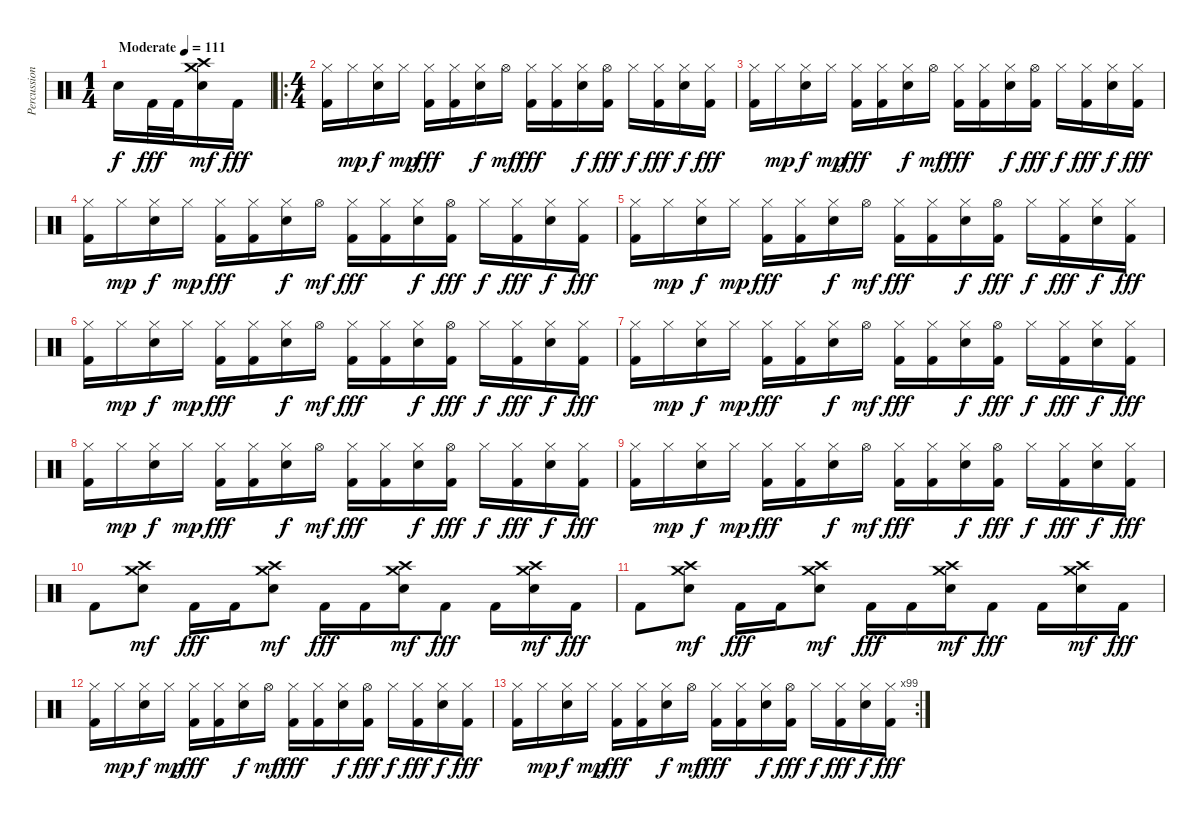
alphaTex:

\track ("Percussion" "Percussion") {instrument percussion}
\staff {score}
\articulation defaults
\ts (1 4)
\tempo (111 "Moderate")
\clef neutral
\ks c "Snare (hit) 2".16{dy f} "Kick (hit) 2".32{dy fff} "Kick (hit) 2".32
("Crash medium (hit)" "Crash high (hit)" "Snare (hit) 2").16{dy mf} "Kick (hit) 2".16{dy fff} |
\ro
\ts (4 4)
("Hi-Hat (closed)" "Kick (hit) 2").16 "Hi-Hat (closed)".16{dy mp} ("Hi-Hat (closed)" "Snare (hit) 2").16{dy f} "Hi-Hat (closed)".16{dy mp} ("Hi-Hat (closed)" "Kick (hit) 2").16{dy fff} ("Hi-Hat (closed)" "Kick (hit) 2").16 ("Hi-Hat (closed)" "Snare (hit) 2").16{dy f} "Hi-Hat (open)".16{dy mf} ("Hi-Hat (closed)" "Kick (hit) 2").16{dy fff} ("Hi-Hat (closed)" "Kick (hit) 2").16 ("Hi-Hat (closed)" "Snare (hit) 2").16{dy f} ("Hi-Hat (open)" "Kick (hit) 2").16{dy fff} "Hi-Hat (closed)".16{dy f} ("Hi-Hat (closed)" "Kick (hit) 2").16{dy fff} ("Hi-Hat (closed)" "Snare (hit) 2").16{dy f} ("Hi-Hat (closed)" "Kick (hit) 2").16{dy fff} |
("Hi-Hat (closed)" "Kick (hit) 2").16 "Hi-Hat (closed)".16{dy mp} ("Hi-Hat (closed)" "Snare (hit) 2").16{dy f} "Hi-Hat (closed)".16{dy mp} ("Hi-Hat (closed)" "Kick (hit) 2").16{dy fff} ("Hi-Hat (closed)" "Kick (hit) 2").16 ("Hi-Hat (closed)" "Snare (hit) 2").16{dy f} "Hi-Hat (open)".16{dy mf} ("Hi-Hat (closed)" "Kick (hit) 2").16{dy fff} ("Hi-Hat (closed)" "Kick (hit) 2").16 ("Hi-Hat (closed)" "Snare (hit) 2").16{dy f} ("Hi-Hat (open)" "Kick (hit) 2").16{dy fff} "Hi-Hat (closed)".16{dy f} ("Hi-Hat (closed)" "Kick (hit) 2").16{dy fff} ("Hi-Hat (closed)" "Snare (hit) 2").16{dy f} ("Hi-Hat (closed)" "Kick (hit) 2").16{dy fff} |
("Hi-Hat (closed)" "Kick (hit) 2").16 "Hi-Hat (closed)".16{dy mp} ("Hi-Hat (closed)" "Snare (hit) 2").16{dy f} "Hi-Hat (closed)".16{dy mp} ("Hi-Hat (closed)" "Kick (hit) 2").16{dy fff} ("Hi-Hat (closed)" "Kick (hit) 2").16 ("Hi-Hat (closed)" "Snare (hit) 2").16{dy f} "Hi-Hat (open)".16{dy mf} ("Hi-Hat (closed)" "Kick (hit) 2").16{dy fff} ("Hi-Hat (closed)" "Kick (hit) 2").16 ("Hi-Hat (closed)" "Snare (hit) 2").16{dy f} ("Hi-Hat (open)" "Kick (hit) 2").16{dy fff} "Hi-Hat (closed)".16{dy f} ("Hi-Hat (closed)" "Kick (hit) 2").16{dy fff} ("Hi-Hat (closed)" "Snare (hit) 2").16{dy f} ("Hi-Hat (closed)" "Kick (hit) 2").16{dy fff} |
("Hi-Hat (closed)" "Kick (hit) 2").16 "Hi-Hat (closed)".16{dy mp} ("Hi-Hat (closed)" "Snare (hit) 2").16{dy f} "Hi-Hat (closed)".16{dy mp} ("Hi-Hat (closed)" "Kick (hit) 2").16{dy fff} ("Hi-Hat (closed)" "Kick (hit) 2").16 ("Hi-Hat (closed)" "Snare (hit) 2").16{dy f} "Hi-Hat (open)".16{dy mf} ("Hi-Hat (closed)" "Kick (hit) 2").16{dy fff} ("Hi-Hat (closed)" "Kick (hit) 2").16 ("Hi-Hat (closed)" "Snare (hit) 2").16{dy f} ("Hi-Hat (open)" "Kick (hit) 2").16{dy fff} "Hi-Hat (closed)".16{dy f} ("Hi-Hat (closed)" "Kick (hit) 2").16{dy fff} ("Hi-Hat (closed)" "Snare (hit) 2").16{dy f} ("Hi-Hat (closed)" "Kick (hit) 2").16{dy fff} |
("Hi-Hat (closed)" "Kick (hit) 2").16 "Hi-Hat (closed)".16{dy mp} ("Hi-Hat (closed)" "Snare (hit) 2").16{dy f} "Hi-Hat (closed)".16{dy mp} ("Hi-Hat (closed)" "Kick (hit) 2").16{dy fff} ("Hi-Hat (closed)" "Kick (hit) 2").16 ("Hi-Hat (closed)" "Snare (hit) 2").16{dy f} "Hi-Hat (open)".16{dy mf} ("Hi-Hat (closed)" "Kick (hit) 2").16{dy fff} ("Hi-Hat (closed)" "Kick (hit) 2").16 ("Hi-Hat (closed)" "Snare (hit) 2").16{dy f} ("Hi-Hat (open)" "Kick (hit) 2").16{dy fff} "Hi-Hat (closed)".16{dy f} ("Hi-Hat (closed)" "Kick (hit) 2").16{dy fff} ("Hi-Hat (closed)" "Snare (hit) 2").16{dy f} ("Hi-Hat (closed)" "Kick (hit) 2").16{dy fff} |
("Hi-Hat (closed)" "Kick (hit) 2").16 "Hi-Hat (closed)".16{dy mp} ("Hi-Hat (closed)" "Snare (hit) 2").16{dy f} "Hi-Hat (closed)".16{dy mp} ("Hi-Hat (closed)" "Kick (hit) 2").16{dy fff} ("Hi-Hat (closed)" "Kick (hit) 2").16 ("Hi-Hat (closed)" "Snare (hit) 2").16{dy f} "Hi-Hat (open)".16{dy mf} ("Hi-Hat (closed)" "Kick (hit) 2").16{dy fff} ("Hi-Hat (closed)" "Kick (hit) 2").16 ("Hi-Hat (closed)" "Snare (hit) 2").16{dy f} ("Hi-Hat (open)" "Kick (hit) 2").16{dy fff} "Hi-Hat (closed)".16{dy f} ("Hi-Hat (closed)" "Kick (hit) 2").16{dy fff} ("Hi-Hat (closed)" "Snare (hit) 2").16{dy f} ("Hi-Hat (closed)" "Kick (hit) 2").16{dy fff} |
("Hi-Hat (closed)" "Kick (hit) 2").16 "Hi-Hat (closed)".16{dy mp} ("Hi-Hat (closed)" "Snare (hit) 2").16{dy f} "Hi-Hat (closed)".16{dy mp} ("Hi-Hat (closed)" "Kick (hit) 2").16{dy fff} ("Hi-Hat (closed)" "Kick (hit) 2").16 ("Hi-Hat (closed)" "Snare (hit) 2").16{dy f} "Hi-Hat (open)".16{dy mf} ("Hi-Hat (closed)" "Kick (hit) 2").16{dy fff} ("Hi-Hat (closed)" "Kick (hit) 2").16 ("Hi-Hat (closed)" "Snare (hit) 2").16{dy f} ("Hi-Hat (open)" "Kick (hit) 2").16{dy fff} "Hi-Hat (closed)".16{dy f} ("Hi-Hat (closed)" "Kick (hit) 2").16{dy fff} ("Hi-Hat (closed)" "Snare (hit) 2").16{dy f} ("Hi-Hat (closed)" "Kick (hit) 2").16{dy fff} |
("Hi-Hat (closed)" "Kick (hit) 2").16 "Hi-Hat (closed)".16{dy mp} ("Hi-Hat (closed)" "Snare (hit) 2").16{dy f} "Hi-Hat (closed)".16{dy mp} ("Hi-Hat (closed)" "Kick (hit) 2").16{dy fff} ("Hi-Hat (closed)" "Kick (hit) 2").16 ("Hi-Hat (closed)" "Snare (hit) 2").16{dy f} "Hi-Hat (open)".16{dy mf} ("Hi-Hat (closed)" "Kick (hit) 2").16{dy fff} ("Hi-Hat (closed)" "Kick (hit) 2").16 ("Hi-Hat (closed)" "Snare (hit) 2").16{dy f} ("Hi-Hat (open)" "Kick (hit) 2").16{dy fff} "Hi-Hat (closed)".16{dy f} ("Hi-Hat (closed)" "Kick (hit) 2").16{dy fff} ("Hi-Hat (closed)" "Snare (hit) 2").16{dy f} ("Hi-Hat (closed)" "Kick (hit) 2").16{dy fff} |
"Kick (hit) 2".8 ("Crash high (hit)" "Crash medium (hit)" "Snare (hit) 2").8{dy mf} "Kick (hit) 2".16{dy fff} "Kick (hit) 2".16 ("Crash high (hit)" "Crash medium (hit)" "Snare (hit) 2").8{dy mf} "Kick (hit) 2".16{dy fff} "Kick (hit) 2".16 ("Crash high (hit)" "Crash medium (hit)" "Snare (hit) 2").16{dy mf} "Kick (hit) 2".8{dy fff} "Kick (hit) 2".16 ("Crash high (hit)" "Crash medium (hit)" "Snare (hit) 2").16{dy mf} "Kick (hit) 2".16{dy fff} |
"Kick (hit) 2".8 ("Crash high (hit)" "Crash medium (hit)" "Snare (hit) 2").8{dy mf} "Kick (hit) 2".16{dy fff} "Kick (hit) 2".16 ("Crash high (hit)" "Crash medium (hit)" "Snare (hit) 2").8{dy mf} "Kick (hit) 2".16{dy fff} "Kick (hit) 2".16 ("Crash high (hit)" "Crash medium (hit)" "Snare (hit) 2").16{dy mf} "Kick (hit) 2".8{dy fff} "Kick (hit) 2".16 ("Crash high (hit)" "Crash medium (hit)" "Snare (hit) 2").16{dy mf} "Kick (hit) 2".16{dy fff} |
("Hi-Hat (closed)" "Kick (hit) 2").16 "Hi-Hat (closed)".16{dy mp} ("Hi-Hat (closed)" "Snare (hit) 2").16{dy f} "Hi-Hat (closed)".16{dy mp} ("Hi-Hat (closed)" "Kick (hit) 2").16{dy fff} ("Hi-Hat (closed)" "Kick (hit) 2").16 ("Hi-Hat (closed)" "Snare (hit) 2").16{dy f} "Hi-Hat (open)".16{dy mf} ("Hi-Hat (closed)" "Kick (hit) 2").16{dy fff} ("Hi-Hat (closed)" "Kick (hit) 2").16 ("Hi-Hat (closed)" "Snare (hit) 2").16{dy f} ("Hi-Hat (open)" "Kick (hit) 2").16{dy fff} "Hi-Hat (closed)".16{dy f} ("Hi-Hat (closed)" "Kick (hit) 2").16{dy fff} ("Hi-Hat (closed)" "Snare (hit) 2").16{dy f} ("Hi-Hat (closed)" "Kick (hit) 2").16{dy fff} |
\rc 99
("Hi-Hat (closed)" "Kick (hit) 2").16 "Hi-Hat (closed)".16{dy mp} ("Hi-Hat (closed)" "Snare (hit) 2").16{dy f} "Hi-Hat (closed)".16{dy mp} ("Hi-Hat (closed)" "Kick (hit) 2").16{dy fff} ("Hi-Hat (closed)" "Kick (hit) 2").16 ("Hi-Hat (closed)" "Snare (hit) 2").16{dy f} "Hi-Hat (open)".16{dy mf} ("Hi-Hat (closed)" "Kick (hit) 2").16{dy fff} ("Hi-Hat (closed)" "Kick (hit) 2").16 ("Hi-Hat (closed)" "Snare (hit) 2").16{dy f} ("Hi-Hat (open)" "Kick (hit) 2").16{dy fff} "Hi-Hat (closed)".16{dy f} ("Hi-Hat (closed)" "Kick (hit) 2").16{dy fff} ("Hi-Hat (closed)" "Snare (hit) 2").16{dy f} ("Hi-Hat (closed)" "Kick (hit) 2").16{dy fff}
